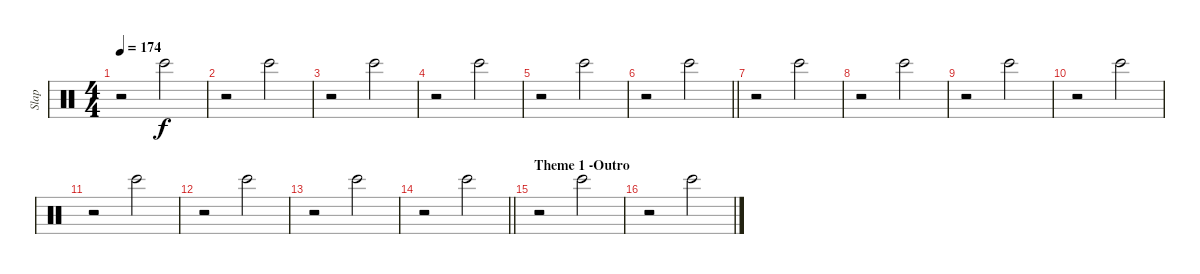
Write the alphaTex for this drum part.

\track ("Slap" "Slap") {instrument percussion}
\staff {score}
\articulation defaults
\ts (4 4)
\tempo 174
\clef neutral
\ks c
r.2{dy f} "Bongo High (hit)".2 |
r.2 "Bongo High (hit)".2 |
r.2 "Bongo High (hit)".2 |
r.2 "Bongo High (hit)".2 |
r.2 "Bongo High (hit)".2 |
\barLineRight lightlight
r.2 "Bongo High (hit)".2 |
r.2 "Bongo High (hit)".2 |
r.2 "Bongo High (hit)".2 |
r.2 "Bongo High (hit)".2 |
r.2 "Bongo High (hit)".2 |
r.2 "Bongo High (hit)".2 |
r.2 "Bongo High (hit)".2 |
r.2 "Bongo High (hit)".2 |
\barLineRight lightlight
r.2 "Bongo High (hit)".2 |
\section ("" "Theme 1 -Outro")
r.2 "Bongo High (hit)".2 |
r.2 "Bongo High (hit)".2
